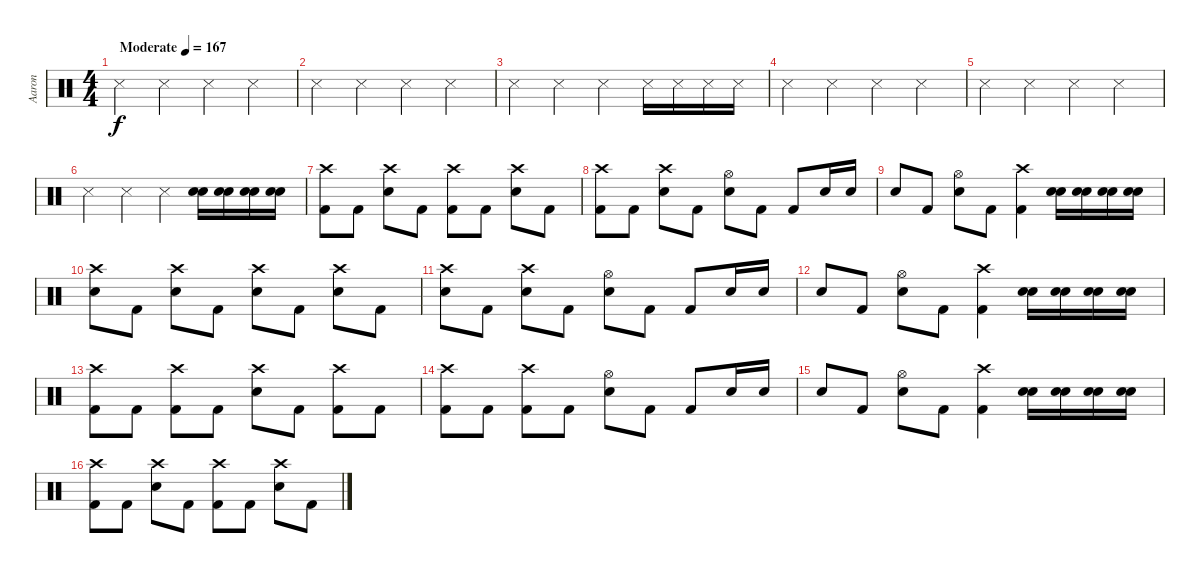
\track ("Aaron" "Aaron") {instrument percussion}
\staff {score}
\articulation defaults
\ts (4 4)
\tempo (167 "Moderate")
\clef neutral
\ks c "Snare (side stick) 3".4{dy f} "Snare (side stick) 3".4 "Snare (side stick) 3".4 "Snare (side stick) 3".4
|
"Snare (side stick) 3".4 "Snare (side stick) 3".4 "Snare (side stick) 3".4 "Snare (side stick) 3".4 |
"Snare (side stick) 3".4 "Snare (side stick) 3".4 "Snare (side stick) 3".4 "Snare (side stick) 3".16 "Snare (side stick) 3".16 "Snare (side stick) 3".16 "Snare (side stick) 3".16 |
"Snare (side stick) 3".4 "Snare (side stick) 3".4 "Snare (side stick) 3".4 "Snare (side stick) 3".4 |
"Snare (side stick) 3".4 "Snare (side stick) 3".4 "Snare (side stick) 3".4 "Snare (side stick) 3".4 |
"Snare (side stick) 3".4 "Snare (side stick) 3".4 "Snare (side stick) 3".4 ("Electric Snare (hit)" "Electric Snare (hit)").16 ("Electric Snare (hit)" "Electric Snare (hit)").16 ("Electric Snare (hit)" "Electric Snare (hit)").16 ("Electric Snare (hit)" "Electric Snare (hit)").16 |
("Crash high (hit)" "Kick (hit) 2").8 "Kick (hit) 2".8 ("Crash high (hit)" "Electric Snare (hit)").8 "Kick (hit) 2".8 ("Crash high (hit)" "Kick (hit) 2").8 "Kick (hit) 2".8 ("Crash high (hit)" "Electric Snare (hit)").8 "Kick (hit) 2".8 |
("Crash high (hit)" "Kick (hit) 2").8 "Kick (hit) 2".8 ("Crash high (hit)" "Electric Snare (hit)").8 "Kick (hit) 2".8 ("Hi-Hat (open)" "Electric Snare (hit)").8 "Kick (hit) 2".8 "Kick (hit) 2".8 "Electric Snare (hit)".16 "Electric Snare (hit)".16 |
"Electric Snare (hit)".8 "Kick (hit) 2".8 ("Hi-Hat (open)" "Electric Snare (hit)").8 "Kick (hit) 2".8 ("Crash high (hit)" "Kick (hit) 2").4 ("Electric Snare (hit)" "Electric Snare (hit)").16 ("Electric Snare (hit)" "Electric Snare (hit)").16 ("Electric Snare (hit)" "Electric Snare (hit)").16 ("Electric Snare (hit)" "Electric Snare (hit)").16 |
("Crash high (hit)" "Electric Snare (hit)").8 "Kick (hit) 2".8 ("Crash high (hit)" "Electric Snare (hit)").8 "Kick (hit) 2".8 ("Crash high (hit)" "Electric Snare (hit)").8 "Kick (hit) 2".8 ("Crash high (hit)" "Electric Snare (hit)").8 "Kick (hit) 2".8 |
("Crash high (hit)" "Electric Snare (hit)").8 "Kick (hit) 2".8 ("Crash high (hit)" "Electric Snare (hit)").8 "Kick (hit) 2".8 ("Hi-Hat (open)" "Electric Snare (hit)").8 "Kick (hit) 2".8 "Kick (hit) 2".8 "Electric Snare (hit)".16 "Electric Snare (hit)".16 |
"Electric Snare (hit)".8 "Kick (hit) 2".8 ("Hi-Hat (open)" "Electric Snare (hit)").8 "Kick (hit) 2".8 ("Crash high (hit)" "Kick (hit) 2").4 ("Electric Snare (hit)" "Electric Snare (hit)").16 ("Electric Snare (hit)" "Electric Snare (hit)").16 ("Electric Snare (hit)" "Electric Snare (hit)").16 ("Electric Snare (hit)" "Electric Snare (hit)").16 |
("Crash high (hit)" "Kick (hit) 2").8 "Kick (hit) 2".8 ("Crash high (hit)" "Kick (hit) 2").8 "Kick (hit) 2".8 ("Crash high (hit)" "Electric Snare (hit)").8 "Kick (hit) 2".8 ("Crash high (hit)" "Kick (hit) 2").8 "Kick (hit) 2".8 |
("Crash high (hit)" "Kick (hit) 2").8 "Kick (hit) 2".8 ("Crash high (hit)" "Kick (hit) 2").8 "Kick (hit) 2".8 ("Hi-Hat (open)" "Electric Snare (hit)").8 "Kick (hit) 2".8 "Kick (hit) 2".8 "Electric Snare (hit)".16 "Electric Snare (hit)".16 |
"Electric Snare (hit)".8 "Kick (hit) 2".8 ("Hi-Hat (open)" "Electric Snare (hit)").8 "Kick (hit) 2".8 ("Crash high (hit)" "Kick (hit) 2").4 ("Electric Snare (hit)" "Electric Snare (hit)").16 ("Electric Snare (hit)" "Electric Snare (hit)").16 ("Electric Snare (hit)" "Electric Snare (hit)").16 ("Electric Snare (hit)" "Electric Snare (hit)").16 |
("Crash high (hit)" "Kick (hit) 2").8 "Kick (hit) 2".8 ("Crash high (hit)" "Electric Snare (hit)").8 "Kick (hit) 2".8 ("Crash high (hit)" "Kick (hit) 2").8 "Kick (hit) 2".8 ("Crash high (hit)" "Electric Snare (hit)").8 "Kick (hit) 2".8
